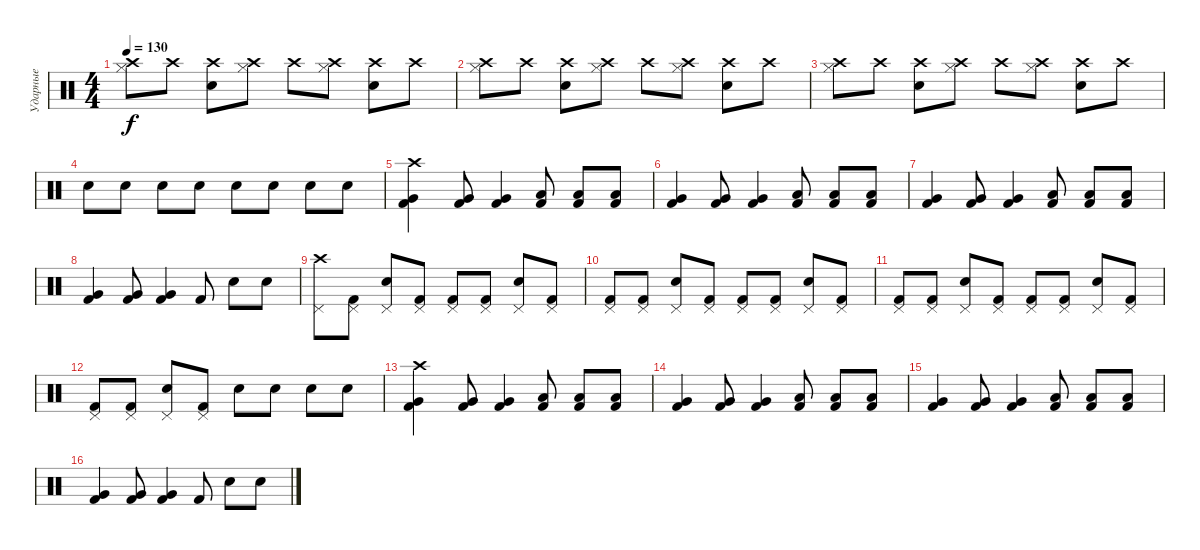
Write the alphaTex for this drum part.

\track ("Ударные" "Ударные") {instrument percussion}
\staff {score}
\articulation defaults
\ts (4 4)
\tempo 130
\clef neutral
\ks c
("Hi-Hat (closed)" "Crash high (hit)").8{dy f} "Crash high (hit)".8 ("Snare (hit) 2" "Crash high (hit)").8 ("Hi-Hat (closed)" "Crash high (hit)").8 "Crash high (hit)".8 ("Hi-Hat (closed)" "Crash high (hit)").8 ("Snare (hit) 2" "Crash high (hit)").8 "Crash high (hit)".8 |
("Hi-Hat (closed)" "Crash high (hit)").8 "Crash high (hit)".8 ("Snare (hit) 2" "Crash high (hit)").8 ("Hi-Hat (closed)" "Crash high (hit)").8 "Crash high (hit)".8 ("Hi-Hat (closed)" "Crash high (hit)").8 ("Snare (hit) 2" "Crash high (hit)").8 "Crash high (hit)".8 |
("Hi-Hat (closed)" "Crash high (hit)").8 "Crash high (hit)".8 ("Snare (hit) 2" "Crash high (hit)").8 ("Hi-Hat (closed)" "Crash high (hit)").8 "Crash high (hit)".8 ("Hi-Hat (closed)" "Crash high (hit)").8 ("Snare (hit) 2" "Crash high (hit)").8 "Crash high (hit)".8 |
"Snare (hit) 2".8 "Snare (hit) 2".8 "Snare (hit) 2".8 "Snare (hit) 2".8 "Snare (hit) 2".8 "Snare (hit) 2".8 "Snare (hit) 2".8 "Snare (hit) 2".8 |
("Kick (hit) 2" "Very Low Tom (hit)" "Crash high (hit)").4 ("Kick (hit) 2" "Very Low Tom (hit)").8 ("Kick (hit) 2" "Very Low Tom (hit)").4 ("Kick (hit) 2" "Low Floor Tom (hit)").8 ("Kick (hit) 2" "Low Floor Tom (hit)").8 ("Kick (hit) 2" "Low Floor Tom (hit)").8 |
("Kick (hit) 2" "Very Low Tom (hit)").4 ("Kick (hit) 2" "Very Low Tom (hit)").8 ("Kick (hit) 2" "Very Low Tom (hit)").4 ("Kick (hit) 2" "Low Floor Tom (hit)").8 ("Kick (hit) 2" "Low Floor Tom (hit)").8 ("Kick (hit) 2" "Low Floor Tom (hit)").8 |
("Kick (hit) 2" "Very Low Tom (hit)").4 ("Kick (hit) 2" "Very Low Tom (hit)").8 ("Kick (hit) 2" "Very Low Tom (hit)").4 ("Kick (hit) 2" "Low Floor Tom (hit)").8 ("Kick (hit) 2" "Low Floor Tom (hit)").8 ("Kick (hit) 2" "Low Floor Tom (hit)").8 |
("Kick (hit) 2" "Very Low Tom (hit)").4 ("Kick (hit) 2" "Very Low Tom (hit)").8 ("Kick (hit) 2" "Very Low Tom (hit)").4 "Kick (hit) 2".8 "Snare (hit) 2".8 "Snare (hit) 2".8 |
("Crash high (hit)" "Pedal Hi-Hat (hit)").8 ("Kick (hit) 2" "Pedal Hi-Hat (hit)").8 ("Snare (hit) 2" "Pedal Hi-Hat (hit)").8 ("Kick (hit) 2" "Pedal Hi-Hat (hit)").8 ("Kick (hit) 2" "Pedal Hi-Hat (hit)").8 ("Kick (hit) 2" "Pedal Hi-Hat (hit)").8 ("Snare (hit) 2" "Pedal Hi-Hat (hit)").8 ("Kick (hit) 2" "Pedal Hi-Hat (hit)").8 |
("Kick (hit) 2" "Pedal Hi-Hat (hit)").8 ("Kick (hit) 2" "Pedal Hi-Hat (hit)").8 ("Snare (hit) 2" "Pedal Hi-Hat (hit)").8 ("Kick (hit) 2" "Pedal Hi-Hat (hit)").8 ("Kick (hit) 2" "Pedal Hi-Hat (hit)").8 ("Kick (hit) 2" "Pedal Hi-Hat (hit)").8 ("Snare (hit) 2" "Pedal Hi-Hat (hit)").8 ("Kick (hit) 2" "Pedal Hi-Hat (hit)").8 |
("Kick (hit) 2" "Pedal Hi-Hat (hit)").8 ("Kick (hit) 2" "Pedal Hi-Hat (hit)").8 ("Snare (hit) 2" "Pedal Hi-Hat (hit)").8 ("Kick (hit) 2" "Pedal Hi-Hat (hit)").8 ("Kick (hit) 2" "Pedal Hi-Hat (hit)").8 ("Kick (hit) 2" "Pedal Hi-Hat (hit)").8 ("Snare (hit) 2" "Pedal Hi-Hat (hit)").8 ("Kick (hit) 2" "Pedal Hi-Hat (hit)").8 |
("Kick (hit) 2" "Pedal Hi-Hat (hit)").8 ("Kick (hit) 2" "Pedal Hi-Hat (hit)").8 ("Snare (hit) 2" "Pedal Hi-Hat (hit)").8 ("Kick (hit) 2" "Pedal Hi-Hat (hit)").8 "Snare (hit) 2".8 "Snare (hit) 2".8 "Snare (hit) 2".8 "Snare (hit) 2".8 |
("Kick (hit) 2" "Very Low Tom (hit)" "Crash high (hit)").4 ("Kick (hit) 2" "Very Low Tom (hit)").8 ("Kick (hit) 2" "Very Low Tom (hit)").4 ("Kick (hit) 2" "Low Floor Tom (hit)").8 ("Kick (hit) 2" "Low Floor Tom (hit)").8 ("Kick (hit) 2" "Low Floor Tom (hit)").8 |
("Kick (hit) 2" "Very Low Tom (hit)").4 ("Kick (hit) 2" "Very Low Tom (hit)").8 ("Kick (hit) 2" "Very Low Tom (hit)").4 ("Kick (hit) 2" "Low Floor Tom (hit)").8 ("Kick (hit) 2" "Low Floor Tom (hit)").8 ("Kick (hit) 2" "Low Floor Tom (hit)").8 |
("Kick (hit) 2" "Very Low Tom (hit)").4 ("Kick (hit) 2" "Very Low Tom (hit)").8 ("Kick (hit) 2" "Very Low Tom (hit)").4 ("Kick (hit) 2" "Low Floor Tom (hit)").8 ("Kick (hit) 2" "Low Floor Tom (hit)").8 ("Kick (hit) 2" "Low Floor Tom (hit)").8 |
("Kick (hit) 2" "Very Low Tom (hit)").4 ("Kick (hit) 2" "Very Low Tom (hit)").8 ("Kick (hit) 2" "Very Low Tom (hit)").4 "Kick (hit) 2".8 "Snare (hit) 2".8 "Snare (hit) 2".8
